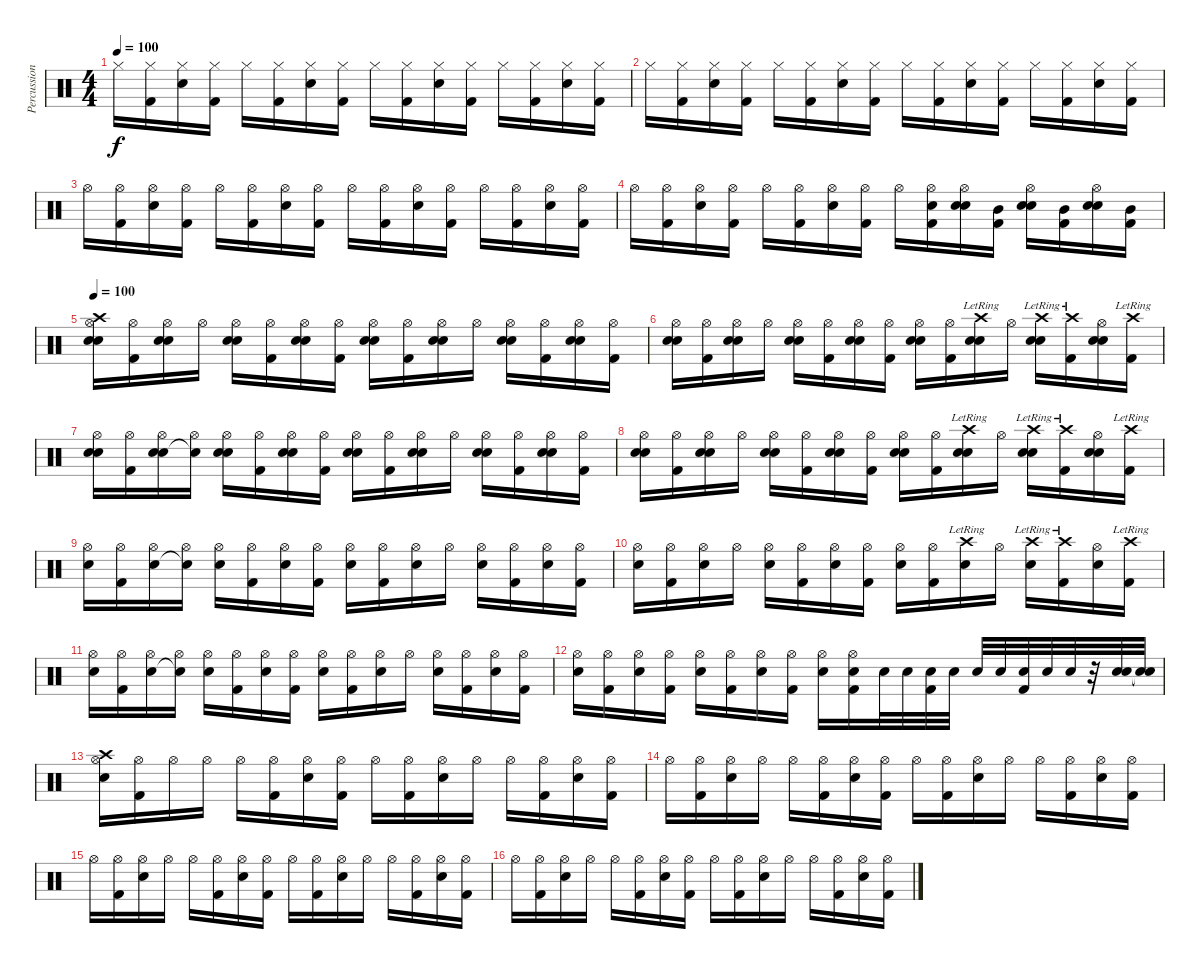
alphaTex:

\track ("Percussions" "Percussion") {instrument percussion}
\staff {score}
\articulation defaults
\ts (4 4)
\tempo 100
\clef neutral
\ks c "Hi-Hat (closed)".16{dy f}
("Kick (hit) 2" "Hi-Hat (closed)").16 ("Electric Snare (hit)" "Hi-Hat (closed)").16 ("Kick (hit) 2" "Hi-Hat (closed)").16 "Hi-Hat (closed)".16 ("Kick (hit) 2" "Hi-Hat (closed)").16 ("Electric Snare (hit)" "Hi-Hat (closed)").16 ("Kick (hit) 2" "Hi-Hat (closed)").16 "Hi-Hat (closed)".16 ("Kick (hit) 2" "Hi-Hat (closed)").16 ("Electric Snare (hit)" "Hi-Hat (closed)").16 ("Kick (hit) 2" "Hi-Hat (closed)").16 "Hi-Hat (closed)".16 ("Kick (hit) 2" "Hi-Hat (closed)").16 ("Electric Snare (hit)" "Hi-Hat (closed)").16 ("Kick (hit) 2" "Hi-Hat (closed)").16 |
"Hi-Hat (closed)".16 ("Kick (hit) 2" "Hi-Hat (closed)").16 ("Electric Snare (hit)" "Hi-Hat (closed)").16 ("Kick (hit) 2" "Hi-Hat (closed)").16 "Hi-Hat (closed)".16 ("Kick (hit) 2" "Hi-Hat (closed)").16 ("Electric Snare (hit)" "Hi-Hat (closed)").16 ("Kick (hit) 2" "Hi-Hat (closed)").16 "Hi-Hat (closed)".16 ("Kick (hit) 2" "Hi-Hat (closed)").16 ("Electric Snare (hit)" "Hi-Hat (closed)").16 ("Kick (hit) 2" "Hi-Hat (closed)").16 "Hi-Hat (closed)".16 ("Kick (hit) 2" "Hi-Hat (closed)").16 ("Electric Snare (hit)" "Hi-Hat (closed)").16 ("Kick (hit) 2" "Hi-Hat (closed)").16 |
"Hi-Hat (open)".16 ("Kick (hit) 2" "Hi-Hat (open)").16 ("Electric Snare (hit)" "Hi-Hat (open)").16 ("Kick (hit) 2" "Hi-Hat (open)").16 "Hi-Hat (open)".16 ("Kick (hit) 2" "Hi-Hat (open)").16 ("Electric Snare (hit)" "Hi-Hat (open)").16 ("Kick (hit) 2" "Hi-Hat (open)").16 "Hi-Hat (open)".16 ("Kick (hit) 2" "Hi-Hat (open)").16 ("Electric Snare (hit)" "Hi-Hat (open)").16 ("Kick (hit) 2" "Hi-Hat (open)").16 "Hi-Hat (open)".16 ("Kick (hit) 2" "Hi-Hat (open)").16 ("Electric Snare (hit)" "Hi-Hat (open)").16 ("Kick (hit) 2" "Hi-Hat (open)").16 |
"Hi-Hat (open)".16 ("Kick (hit) 2" "Hi-Hat (open)").16 ("Electric Snare (hit)" "Hi-Hat (open)").16 ("Kick (hit) 2" "Hi-Hat (open)").16 "Hi-Hat (open)".16 ("Kick (hit) 2" "Hi-Hat (open)").16 ("Electric Snare (hit)" "Hi-Hat (open)").16 ("Kick (hit) 2" "Hi-Hat (open)").16 "Hi-Hat (open)".16 ("Kick (hit) 2" "Electric Snare (hit)" "Hi-Hat (open)").16 ("Electric Snare (hit)" "Electric Snare (hit)" "Hi-Hat (open)").16 ("Kick (hit) 2" "Mid Tom (hit)").16 ("Electric Snare (hit)" "Electric Snare (hit)" "Hi-Hat (open)").16 ("Kick (hit) 2" "Mid Tom (hit)").16 ("Electric Snare (hit)" "Electric Snare (hit)" "Hi-Hat (open)").16 ("Kick (hit) 2" "Mid Tom (hit)").16 |
\tempo 100
("Crash high (hit)" "Electric Snare (hit)" "Electric Snare (hit)" "Hi-Hat (open)").16 ("Kick (hit) 2" "Hi-Hat (open)").16 ("Electric Snare (hit)" "Electric Snare (hit)" "Hi-Hat (open)").16 "Hi-Hat (open)".16 ("Electric Snare (hit)" "Electric Snare (hit)" "Hi-Hat (open)").16 ("Kick (hit) 2" "Hi-Hat (open)").16 ("Electric Snare (hit)" "Electric Snare (hit)" "Hi-Hat (open)").16 ("Kick (hit) 2" "Hi-Hat (open)").16 ("Electric Snare (hit)" "Electric Snare (hit)" "Hi-Hat (open)").16 ("Kick (hit) 2" "Hi-Hat (open)").16 ("Electric Snare (hit)" "Electric Snare (hit)" "Hi-Hat (open)").16 "Hi-Hat (open)".16 ("Electric Snare (hit)" "Electric Snare (hit)" "Hi-Hat (open)").16 ("Kick (hit) 2" "Hi-Hat (open)").16 ("Electric Snare (hit)" "Electric Snare (hit)" "Hi-Hat (open)").16 ("Kick (hit) 2" "Hi-Hat (open)").16 |
("Electric Snare (hit)" "Electric Snare (hit)" "Hi-Hat (open)").16 ("Kick (hit) 2" "Hi-Hat (open)").16 ("Electric Snare (hit)" "Electric Snare (hit)" "Hi-Hat (open)").16 "Hi-Hat (open)".16 ("Electric Snare (hit)" "Electric Snare (hit)" "Hi-Hat (open)").16 ("Kick (hit) 2" "Hi-Hat (open)").16 ("Electric Snare (hit)" "Electric Snare (hit)" "Hi-Hat (open)").16 ("Kick (hit) 2" "Hi-Hat (open)").16 ("Electric Snare (hit)" "Electric Snare (hit)" "Hi-Hat (open)").16 ("Kick (hit) 2" "Hi-Hat (open)").16 ("Crash high (hit)"{lr} "Electric Snare (hit)" "Electric Snare (hit)").16 "Hi-Hat (open)".16 ("Crash high (hit)"{lr} "Electric Snare (hit)" "Electric Snare (hit)").16 ("Crash high (hit)"{lr} "Kick (hit) 2").16 ("Electric Snare (hit)" "Electric Snare (hit)" "Hi-Hat (open)").16 ("Crash high (hit)"{lr} "Kick (hit) 2").16 |
("Electric Snare (hit)" "Electric Snare (hit)" "Hi-Hat (open)").16 ("Kick (hit) 2" "Hi-Hat (open)").16 ("Electric Snare (hit)" "Electric Snare (hit)" "Hi-Hat (open)").16 ("Snare (hit)"{t} "Hi-Hat (open)").16 ("Electric Snare (hit)" "Electric Snare (hit)" "Hi-Hat (open)").16 ("Kick (hit) 2" "Hi-Hat (open)").16 ("Electric Snare (hit)" "Electric Snare (hit)" "Hi-Hat (open)").16 ("Kick (hit) 2" "Hi-Hat (open)").16 ("Electric Snare (hit)" "Electric Snare (hit)" "Hi-Hat (open)").16 ("Kick (hit) 2" "Hi-Hat (open)").16 ("Electric Snare (hit)" "Electric Snare (hit)" "Hi-Hat (open)").16 "Hi-Hat (open)".16 ("Electric Snare (hit)" "Electric Snare (hit)" "Hi-Hat (open)").16 ("Kick (hit) 2" "Hi-Hat (open)").16 ("Electric Snare (hit)" "Electric Snare (hit)" "Hi-Hat (open)").16 ("Kick (hit) 2" "Hi-Hat (open)").16 |
("Electric Snare (hit)" "Electric Snare (hit)" "Hi-Hat (open)").16 ("Kick (hit) 2" "Hi-Hat (open)").16 ("Electric Snare (hit)" "Electric Snare (hit)" "Hi-Hat (open)").16 "Hi-Hat (open)".16 ("Electric Snare (hit)" "Electric Snare (hit)" "Hi-Hat (open)").16 ("Kick (hit) 2" "Hi-Hat (open)").16 ("Electric Snare (hit)" "Electric Snare (hit)" "Hi-Hat (open)").16 ("Kick (hit) 2" "Hi-Hat (open)").16 ("Electric Snare (hit)" "Electric Snare (hit)" "Hi-Hat (open)").16 ("Kick (hit) 2" "Hi-Hat (open)").16 ("Crash high (hit)"{lr} "Electric Snare (hit)" "Electric Snare (hit)").16 "Hi-Hat (open)".16 ("Crash high (hit)"{lr} "Electric Snare (hit)" "Electric Snare (hit)").16 ("Crash high (hit)"{lr} "Kick (hit) 2").16 ("Electric Snare (hit)" "Electric Snare (hit)" "Hi-Hat (open)").16 ("Crash high (hit)"{lr} "Kick (hit) 2").16 |
("Electric Snare (hit)" "Hi-Hat (open)").16 ("Kick (hit) 2" "Hi-Hat (open)").16 ("Electric Snare (hit)" "Hi-Hat (open)").16 ("Snare (hit)"{t} "Hi-Hat (open)").16 ("Electric Snare (hit)" "Hi-Hat (open)").16 ("Kick (hit) 2" "Hi-Hat (open)").16 ("Electric Snare (hit)" "Hi-Hat (open)").16 ("Kick (hit) 2" "Hi-Hat (open)").16 ("Electric Snare (hit)" "Hi-Hat (open)").16 ("Kick (hit) 2" "Hi-Hat (open)").16 ("Electric Snare (hit)" "Hi-Hat (open)").16 "Hi-Hat (open)".16 ("Electric Snare (hit)" "Hi-Hat (open)").16 ("Kick (hit) 2" "Hi-Hat (open)").16 ("Electric Snare (hit)" "Hi-Hat (open)").16 ("Kick (hit) 2" "Hi-Hat (open)").16 |
("Electric Snare (hit)" "Hi-Hat (open)").16 ("Kick (hit) 2" "Hi-Hat (open)").16 ("Electric Snare (hit)" "Hi-Hat (open)").16 "Hi-Hat (open)".16 ("Electric Snare (hit)" "Hi-Hat (open)").16 ("Kick (hit) 2" "Hi-Hat (open)").16 ("Electric Snare (hit)" "Hi-Hat (open)").16 ("Kick (hit) 2" "Hi-Hat (open)").16 ("Electric Snare (hit)" "Hi-Hat (open)").16 ("Kick (hit) 2" "Hi-Hat (open)").16 ("Crash high (hit)"{lr} "Electric Snare (hit)").16 "Hi-Hat (open)".16 ("Crash high (hit)"{lr} "Electric Snare (hit)").16 ("Crash high (hit)"{lr} "Kick (hit) 2").16 ("Electric Snare (hit)" "Hi-Hat (open)").16 ("Crash high (hit)"{lr} "Kick (hit) 2").16 |
("Electric Snare (hit)" "Hi-Hat (open)").16 ("Kick (hit) 2" "Hi-Hat (open)").16 ("Electric Snare (hit)" "Hi-Hat (open)").16 ("Snare (hit)"{t} "Hi-Hat (open)").16 ("Electric Snare (hit)" "Hi-Hat (open)").16 ("Kick (hit) 2" "Hi-Hat (open)").16 ("Electric Snare (hit)" "Hi-Hat (open)").16 ("Kick (hit) 2" "Hi-Hat (open)").16 ("Electric Snare (hit)" "Hi-Hat (open)").16 ("Kick (hit) 2" "Hi-Hat (open)").16 ("Electric Snare (hit)" "Hi-Hat (open)").16 "Hi-Hat (open)".16 ("Electric Snare (hit)" "Hi-Hat (open)").16 ("Kick (hit) 2" "Hi-Hat (open)").16 ("Electric Snare (hit)" "Hi-Hat (open)").16 ("Kick (hit) 2" "Hi-Hat (open)").16 |
("Electric Snare (hit)" "Hi-Hat (open)").16 ("Kick (hit) 2" "Hi-Hat (open)").16 ("Electric Snare (hit)" "Hi-Hat (open)").16 ("Kick (hit) 2" "Hi-Hat (open)").16 ("Electric Snare (hit)" "Hi-Hat (open)").16 ("Kick (hit) 2" "Hi-Hat (open)").16 ("Electric Snare (hit)" "Hi-Hat (open)").16 ("Kick (hit) 2" "Hi-Hat (open)").16 ("Electric Snare (hit)" "Hi-Hat (open)").16 ("Kick (hit) 2" "Electric Snare (hit)" "Hi-Hat (open)").16 "Electric Snare (hit)".32 "Electric Snare (hit)".32 ("Kick (hit) 2" "Electric Snare (hit)").32 "Electric Snare (hit)".32 "Electric Snare (hit)".32 "Electric Snare (hit)".32 ("Kick (hit) 2" "Electric Snare (hit)").32 "Electric Snare (hit)".32 "Electric Snare (hit)".32 r.32 ("Electric Snare (hit)" "Electric Snare (hit)").32 ("Snare (hit)"{t} "Snare (hit)"{t}).32 |
("Crash high (hit)" "Electric Snare (hit)" "Hi-Hat (open)").16 ("Kick (hit) 2" "Hi-Hat (open)").16 "Hi-Hat (open)".16 "Hi-Hat (open)".16 "Hi-Hat (open)".16 ("Kick (hit) 2" "Hi-Hat (open)").16 ("Electric Snare (hit)" "Hi-Hat (open)").16 ("Kick (hit) 2" "Hi-Hat (open)").16 "Hi-Hat (open)".16 ("Kick (hit) 2" "Hi-Hat (open)").16 ("Electric Snare (hit)" "Hi-Hat (open)").16 "Hi-Hat (open)".16 "Hi-Hat (open)".16 ("Kick (hit) 2" "Hi-Hat (open)").16 ("Electric Snare (hit)" "Hi-Hat (open)").16 ("Kick (hit) 2" "Hi-Hat (open)").16 |
"Hi-Hat (open)".16 ("Kick (hit) 2" "Hi-Hat (open)").16 ("Electric Snare (hit)" "Hi-Hat (open)").16 "Hi-Hat (open)".16 "Hi-Hat (open)".16 ("Kick (hit) 2" "Hi-Hat (open)").16 ("Electric Snare (hit)" "Hi-Hat (open)").16 ("Kick (hit) 2" "Hi-Hat (open)").16 "Hi-Hat (open)".16 ("Kick (hit) 2" "Hi-Hat (open)").16 ("Electric Snare (hit)" "Hi-Hat (open)").16 "Hi-Hat (open)".16 "Hi-Hat (open)".16 ("Kick (hit) 2" "Hi-Hat (open)").16 ("Electric Snare (hit)" "Hi-Hat (open)").16 ("Kick (hit) 2" "Hi-Hat (open)").16 |
"Hi-Hat (open)".16 ("Kick (hit) 2" "Hi-Hat (open)").16 ("Electric Snare (hit)" "Hi-Hat (open)").16 "Hi-Hat (open)".16 "Hi-Hat (open)".16 ("Kick (hit) 2" "Hi-Hat (open)").16 ("Electric Snare (hit)" "Hi-Hat (open)").16 ("Kick (hit) 2" "Hi-Hat (open)").16 "Hi-Hat (open)".16 ("Kick (hit) 2" "Hi-Hat (open)").16 ("Electric Snare (hit)" "Hi-Hat (open)").16 "Hi-Hat (open)".16 "Hi-Hat (open)".16 ("Kick (hit) 2" "Hi-Hat (open)").16 ("Electric Snare (hit)" "Hi-Hat (open)").16 ("Kick (hit) 2" "Hi-Hat (open)").16 |
"Hi-Hat (open)".16 ("Kick (hit) 2" "Hi-Hat (open)").16 ("Electric Snare (hit)" "Hi-Hat (open)").16 "Hi-Hat (open)".16 "Hi-Hat (open)".16 ("Kick (hit) 2" "Hi-Hat (open)").16 ("Electric Snare (hit)" "Hi-Hat (open)").16 ("Kick (hit) 2" "Hi-Hat (open)").16 "Hi-Hat (open)".16 ("Kick (hit) 2" "Hi-Hat (open)").16 ("Electric Snare (hit)" "Hi-Hat (open)").16 "Hi-Hat (open)".16 "Hi-Hat (open)".16 ("Kick (hit) 2" "Hi-Hat (open)").16 ("Electric Snare (hit)" "Hi-Hat (open)").16 ("Kick (hit) 2" "Hi-Hat (open)").16
